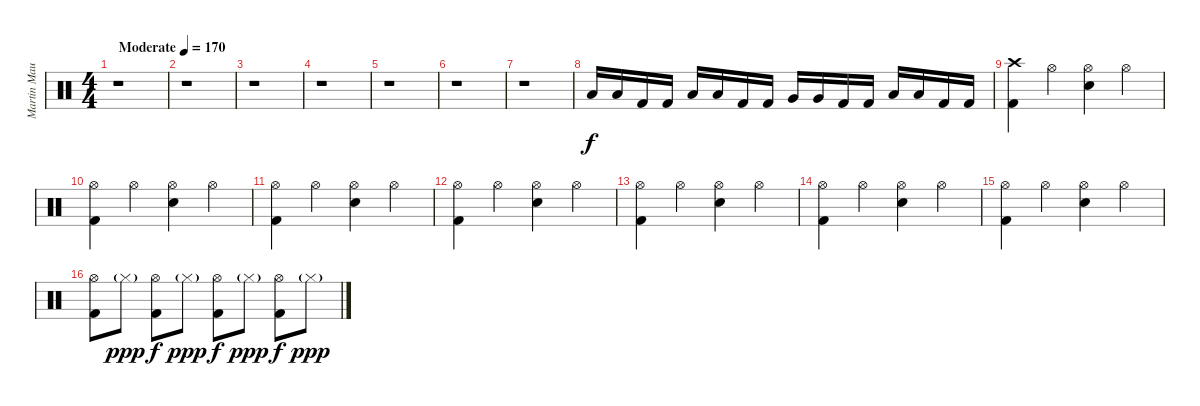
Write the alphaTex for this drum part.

\track ("Martin Maurais " "Martin Mau") {instrument percussion}
\staff {score}
\articulation defaults
\ts (4 4)
\tempo (170 "Moderate")
\clef neutral
\ks c
r.1{dy f} |
r.1 |
r.1 |
r.1 |
r.1 |
r.1 |
r.1 |
"Low Floor Tom (hit)".16 "Low Floor Tom (hit)".16 "Kick (hit) 2".16 "Kick (hit) 2".16 "Low Tom (hit)".16 "Low Tom (hit)".16 "Kick (hit) 2".16 "Kick (hit) 2".16 "Very Low Tom (hit)".16 "Very Low Tom (hit)".16 "Kick (hit) 2".16 "Kick (hit) 2".16 "Low Floor Tom (hit)".16 "Low Floor Tom (hit)".16 "Kick (hit) 2".16 "Kick (hit) 2".16 |
("Crash high (hit)" "Kick (hit) 2").4 "Hi-Hat (open)".4 ("Hi-Hat (open)" "Snare (hit) 2").4 "Hi-Hat (open)".4 |
("Hi-Hat (open)" "Kick (hit) 2").4 "Hi-Hat (open)".4 ("Hi-Hat (open)" "Snare (hit) 2").4 "Hi-Hat (open)".4 |
("Hi-Hat (open)" "Kick (hit) 2").4 "Hi-Hat (open)".4 ("Hi-Hat (open)" "Snare (hit) 2").4 "Hi-Hat (open)".4 |
("Hi-Hat (open)" "Kick (hit) 2").4 "Hi-Hat (open)".4 ("Hi-Hat (open)" "Snare (hit) 2").4 "Hi-Hat (open)".4 |
("Hi-Hat (open)" "Kick (hit) 2").4 "Hi-Hat (open)".4 ("Hi-Hat (open)" "Snare (hit) 2").4 "Hi-Hat (open)".4 |
("Hi-Hat (open)" "Kick (hit) 2").4 "Hi-Hat (open)".4 ("Hi-Hat (open)" "Snare (hit) 2").4 "Hi-Hat (open)".4 |
("Hi-Hat (open)" "Kick (hit) 2").4 "Hi-Hat (open)".4 ("Hi-Hat (open)" "Snare (hit) 2").4 "Hi-Hat (open)".4 |
("Hi-Hat (open)" "Kick (hit) 2").8 "Hi-Hat (closed)"{g}.8{dy ppp} ("Hi-Hat (open)" "Kick (hit) 2").8{dy f} "Hi-Hat (closed)"{g}.8{dy ppp} ("Hi-Hat (open)" "Kick (hit) 2").8{dy f} "Hi-Hat (closed)"{g}.8{dy ppp} ("Hi-Hat (open)" "Kick (hit) 2").8{dy f} "Hi-Hat (closed)"{g}.8{dy ppp}
